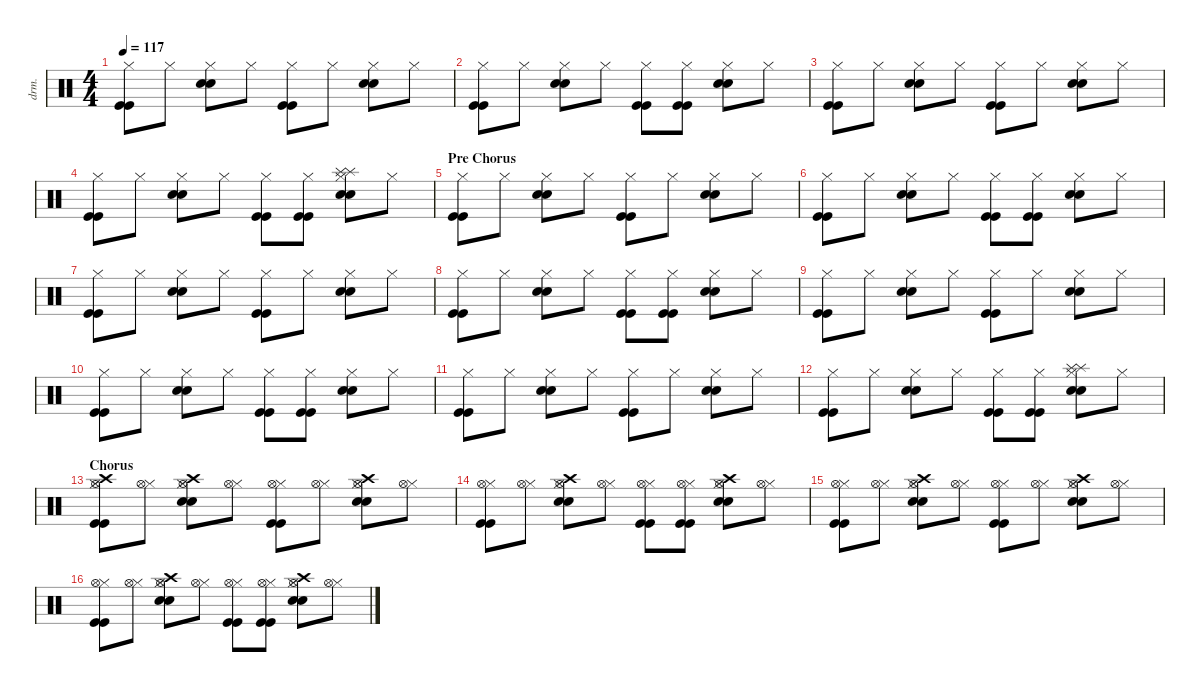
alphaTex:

\defaultSystemsLayout 4
\hideDynamics
\bracketExtendMode nobrackets
\otherSystemsTrackNameOrientation horizontal
\track ("Drums" "drm.") {instrument percussion}
\staff {score}
\articulation defaults
\ts (4 4)
\tempo 117
\clef neutral
\ks c
("Kick (hit)" "Kick (hit)" "Hi-Hat (closed)").8{dy f beam Down} "Hi-Hat (closed)".8{beam Down} ("Snare (hit) 2" "Snare (hit) 2" "Hi-Hat (closed)").8{dy mf beam Down} "Hi-Hat (closed)".8{dy f beam Down} ("Kick (hit)" "Kick (hit)" "Hi-Hat (closed)").8{beam Down} "Hi-Hat (closed)".8{beam Down} ("Snare (hit) 2" "Snare (hit) 2" "Hi-Hat (closed)").8{dy mf beam Down} "Hi-Hat (closed)".8{dy f beam Down} |
("Kick (hit)" "Kick (hit)" "Hi-Hat (closed)").8{beam Down} "Hi-Hat (closed)".8{beam Down} ("Snare (hit) 2" "Snare (hit) 2" "Hi-Hat (closed)").8{dy mf beam Down} "Hi-Hat (closed)".8{dy f beam Down} ("Kick (hit)" "Kick (hit)" "Hi-Hat (closed)").8{beam Down} ("Kick (hit)" "Kick (hit)" "Hi-Hat (closed)").8{beam Down} ("Snare (hit) 2" "Snare (hit) 2" "Hi-Hat (closed)").8{dy mf beam Down} "Hi-Hat (closed)".8{dy f beam Down} |
("Kick (hit)" "Kick (hit)" "Hi-Hat (closed)").8{beam Down} "Hi-Hat (closed)".8{beam Down} ("Snare (hit) 2" "Snare (hit) 2" "Hi-Hat (closed)").8{dy mf beam Down} "Hi-Hat (closed)".8{dy f beam Down} ("Kick (hit)" "Kick (hit)" "Hi-Hat (closed)").8{beam Down} "Hi-Hat (closed)".8{beam Down} ("Snare (hit) 2" "Snare (hit) 2" "Hi-Hat (closed)").8{dy mf beam Down} "Hi-Hat (closed)".8{dy f beam Down} |
("Kick (hit)" "Kick (hit)" "Hi-Hat (closed)").8{beam Down} "Hi-Hat (closed)".8{beam Down} ("Snare (hit) 2" "Snare (hit) 2" "Hi-Hat (closed)").8{dy mf beam Down} "Hi-Hat (closed)".8{dy f beam Down} ("Kick (hit)" "Kick (hit)" "Hi-Hat (closed)").8{beam Down} ("Kick (hit)" "Kick (hit)" "Hi-Hat (closed)").8{beam Down} ("Snare (hit) 2" "Snare (hit) 2" "Hi-Hat (closed)" "Splash (hit)" "Splash (hit)").8{dy ff beam Down} "Hi-Hat (closed)".8{dy f beam Down} |
\section ("" "Pre Chorus")
("Kick (hit)" "Kick (hit)" "Hi-Hat (closed)").8{beam Down} "Hi-Hat (closed)".8{beam Down} ("Snare (hit) 2" "Snare (hit) 2" "Hi-Hat (closed)").8{dy mf beam Down} "Hi-Hat (closed)".8{dy f beam Down} ("Kick (hit)" "Kick (hit)" "Hi-Hat (closed)").8{beam Down} "Hi-Hat (closed)".8{beam Down} ("Snare (hit) 2" "Snare (hit) 2" "Hi-Hat (closed)").8{dy mf beam Down} "Hi-Hat (closed)".8{dy f beam Down} |
("Kick (hit)" "Kick (hit)" "Hi-Hat (closed)").8{beam Down} "Hi-Hat (closed)".8{beam Down} ("Snare (hit) 2" "Snare (hit) 2" "Hi-Hat (closed)").8{dy mf beam Down} "Hi-Hat (closed)".8{dy f beam Down} ("Kick (hit)" "Kick (hit)" "Hi-Hat (closed)").8{beam Down} ("Kick (hit)" "Kick (hit)" "Hi-Hat (closed)").8{beam Down} ("Snare (hit) 2" "Snare (hit) 2" "Hi-Hat (closed)").8{dy mf beam Down} "Hi-Hat (closed)".8{dy f beam Down} |
("Kick (hit)" "Kick (hit)" "Hi-Hat (closed)").8{beam Down} "Hi-Hat (closed)".8{beam Down} ("Snare (hit) 2" "Snare (hit) 2" "Hi-Hat (closed)").8{dy mf beam Down} "Hi-Hat (closed)".8{dy f beam Down} ("Kick (hit)" "Kick (hit)" "Hi-Hat (closed)").8{beam Down} "Hi-Hat (closed)".8{beam Down} ("Snare (hit) 2" "Snare (hit) 2" "Hi-Hat (closed)").8{dy mf beam Down} "Hi-Hat (closed)".8{dy f beam Down} |
("Kick (hit)" "Kick (hit)" "Hi-Hat (closed)").8{beam Down} "Hi-Hat (closed)".8{beam Down} ("Snare (hit) 2" "Snare (hit) 2" "Hi-Hat (closed)").8{dy mf beam Down} "Hi-Hat (closed)".8{dy f beam Down} ("Kick (hit)" "Kick (hit)" "Hi-Hat (closed)").8{beam Down} ("Kick (hit)" "Kick (hit)" "Hi-Hat (closed)").8{beam Down} ("Snare (hit) 2" "Snare (hit) 2" "Hi-Hat (closed)").8{dy mf beam Down} "Hi-Hat (closed)".8{dy f beam Down} |
("Kick (hit)" "Kick (hit)" "Hi-Hat (closed)").8{beam Down} "Hi-Hat (closed)".8{beam Down} ("Snare (hit) 2" "Snare (hit) 2" "Hi-Hat (closed)").8{dy mf beam Down} "Hi-Hat (closed)".8{dy f beam Down} ("Kick (hit)" "Kick (hit)" "Hi-Hat (closed)").8{beam Down} "Hi-Hat (closed)".8{beam Down} ("Snare (hit) 2" "Snare (hit) 2" "Hi-Hat (closed)").8{dy mf beam Down} "Hi-Hat (closed)".8{dy f beam Down} |
("Kick (hit)" "Kick (hit)" "Hi-Hat (closed)").8{beam Down} "Hi-Hat (closed)".8{beam Down} ("Snare (hit) 2" "Snare (hit) 2" "Hi-Hat (closed)").8{dy mf beam Down} "Hi-Hat (closed)".8{dy f beam Down} ("Kick (hit)" "Kick (hit)" "Hi-Hat (closed)").8{beam Down} ("Kick (hit)" "Kick (hit)" "Hi-Hat (closed)").8{beam Down} ("Snare (hit) 2" "Snare (hit) 2" "Hi-Hat (closed)").8{dy mf beam Down} "Hi-Hat (closed)".8{dy f beam Down} |
("Kick (hit)" "Kick (hit)" "Hi-Hat (closed)").8{beam Down} "Hi-Hat (closed)".8{beam Down} ("Snare (hit) 2" "Snare (hit) 2" "Hi-Hat (closed)").8{dy mf beam Down} "Hi-Hat (closed)".8{dy f beam Down} ("Kick (hit)" "Kick (hit)" "Hi-Hat (closed)").8{beam Down} "Hi-Hat (closed)".8{beam Down} ("Snare (hit) 2" "Snare (hit) 2" "Hi-Hat (closed)").8{dy mf beam Down} "Hi-Hat (closed)".8{dy f beam Down} |
("Kick (hit)" "Kick (hit)" "Hi-Hat (closed)").8{beam Down} "Hi-Hat (closed)".8{beam Down} ("Snare (hit) 2" "Snare (hit) 2" "Hi-Hat (closed)").8{dy mf beam Down} "Hi-Hat (closed)".8{dy f beam Down} ("Kick (hit)" "Kick (hit)" "Hi-Hat (closed)").8{beam Down} ("Kick (hit)" "Kick (hit)" "Hi-Hat (closed)").8{beam Down} ("Snare (hit) 2" "Snare (hit) 2" "Hi-Hat (closed)" "Splash (hit)" "Splash (hit)").8{dy mf beam Down} "Hi-Hat (closed)".8{dy f beam Down} |
\section ("" "Chorus")
("Kick (hit)" "Kick (hit)" "Hi-Hat (closed)" "Hi-Hat (open)" "Crash high (hit)").8{beam Down} ("Hi-Hat (closed)" "Hi-Hat (open)").8{beam Down} ("Snare (hit) 2" "Snare (hit) 2" "Hi-Hat (closed)" "Hi-Hat (open)" "Crash high (hit)").8{beam Down} ("Hi-Hat (closed)" "Hi-Hat (open)").8{beam Down} ("Kick (hit)" "Kick (hit)" "Hi-Hat (closed)" "Hi-Hat (open)").8{beam Down} ("Hi-Hat (closed)" "Hi-Hat (open)").8{beam Down} ("Snare (hit) 2" "Snare (hit) 2" "Hi-Hat (closed)" "Hi-Hat (open)" "Crash high (hit)").8{beam Down} ("Hi-Hat (closed)" "Hi-Hat (open)").8{beam Down} |
("Kick (hit)" "Kick (hit)" "Hi-Hat (closed)" "Hi-Hat (open)").8{beam Down} ("Hi-Hat (closed)" "Hi-Hat (open)").8{beam Down} ("Snare (hit) 2" "Snare (hit) 2" "Hi-Hat (closed)" "Hi-Hat (open)" "Crash high (hit)").8{beam Down} ("Hi-Hat (closed)" "Hi-Hat (open)").8{beam Down} ("Kick (hit)" "Kick (hit)" "Hi-Hat (closed)" "Hi-Hat (open)").8{beam Down} ("Kick (hit)" "Kick (hit)" "Hi-Hat (closed)" "Hi-Hat (open)").8{beam Down} ("Snare (hit) 2" "Snare (hit) 2" "Hi-Hat (closed)" "Hi-Hat (open)" "Crash high (hit)").8{beam Down} ("Hi-Hat (closed)" "Hi-Hat (open)").8{beam Down} |
("Kick (hit)" "Kick (hit)" "Hi-Hat (closed)" "Hi-Hat (open)").8{beam Down} ("Hi-Hat (closed)" "Hi-Hat (open)").8{beam Down} ("Snare (hit) 2" "Snare (hit) 2" "Hi-Hat (closed)" "Hi-Hat (open)" "Crash high (hit)").8{beam Down} ("Hi-Hat (closed)" "Hi-Hat (open)").8{beam Down} ("Kick (hit)" "Kick (hit)" "Hi-Hat (closed)" "Hi-Hat (open)").8{beam Down} ("Hi-Hat (closed)" "Hi-Hat (open)").8{beam Down} ("Snare (hit) 2" "Snare (hit) 2" "Hi-Hat (closed)" "Hi-Hat (open)" "Crash high (hit)").8{beam Down} ("Hi-Hat (closed)" "Hi-Hat (open)").8{beam Down} |
("Kick (hit)" "Kick (hit)" "Hi-Hat (closed)" "Hi-Hat (open)").8{beam Down} ("Hi-Hat (closed)" "Hi-Hat (open)").8{beam Down} ("Snare (hit) 2" "Snare (hit) 2" "Hi-Hat (closed)" "Hi-Hat (open)" "Crash high (hit)").8{beam Down} ("Hi-Hat (closed)" "Hi-Hat (open)").8{beam Down} ("Kick (hit)" "Kick (hit)" "Hi-Hat (closed)" "Hi-Hat (open)").8{beam Down} ("Kick (hit)" "Kick (hit)" "Hi-Hat (closed)" "Hi-Hat (open)").8{beam Down} ("Snare (hit) 2" "Snare (hit) 2" "Hi-Hat (closed)" "Hi-Hat (open)" "Crash high (hit)").8{beam Down} ("Hi-Hat (closed)" "Hi-Hat (open)").8{beam Down}
